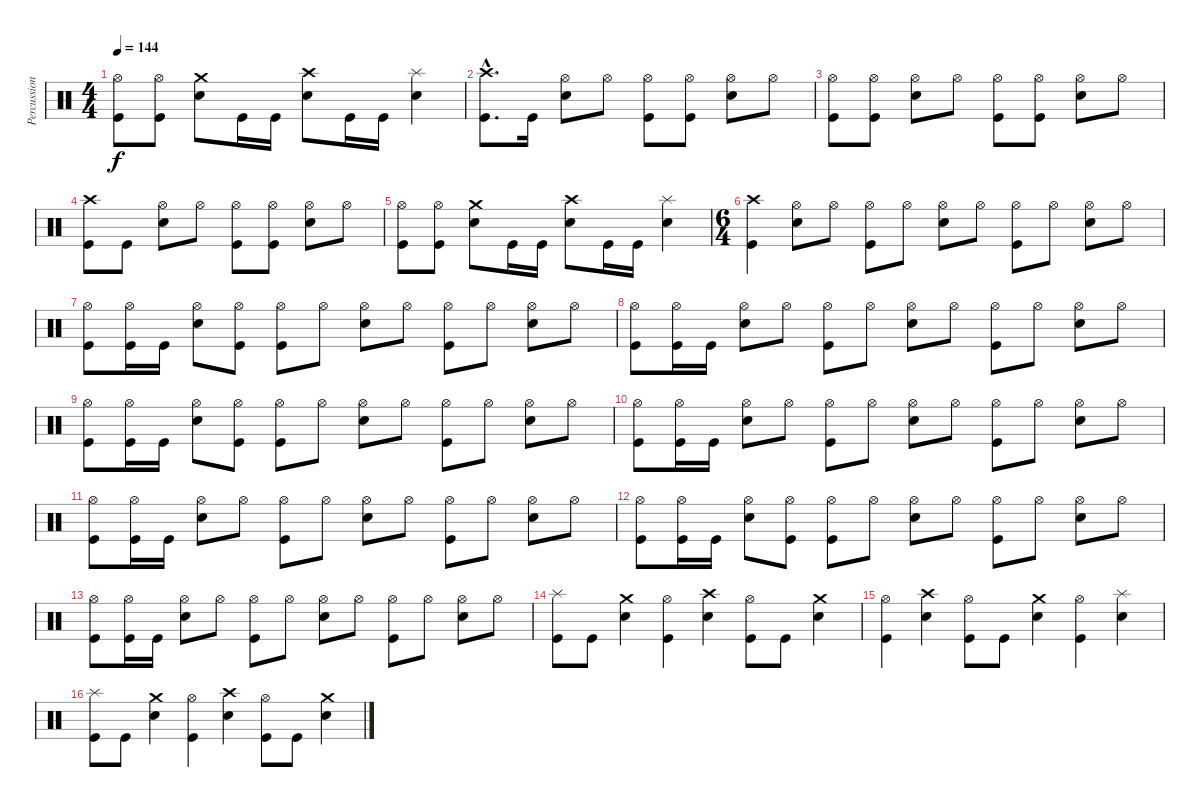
\track ("Percussions" "Percussion") {instrument percussion}
\staff {score}
\articulation defaults
\ts (4 4)
\tempo 144
\clef neutral
\ks c
("Kick (hit)" "Hi-Hat (open)").8{dy f} ("Kick (hit)" "Hi-Hat (open)").8 ("Electric Snare (hit)" "Crash medium (hit)").8 "Kick (hit)".16 "Kick (hit)".16 ("Electric Snare (hit)" "Crash high (hit)").8 "Kick (hit)".16 "Kick (hit)".16 ("Electric Snare (hit)" "Splash (hit)").4 |
("Kick (hit)"{hac} "Crash high (hit)"{hac}).8{d} "Kick (hit)".16 ("Electric Snare (hit)" "Hi-Hat (open)").8 "Hi-Hat (open)".8 ("Kick (hit)" "Hi-Hat (open)").8 ("Kick (hit)" "Hi-Hat (open)").8 ("Electric Snare (hit)" "Hi-Hat (open)").8 "Hi-Hat (open)".8 |
("Kick (hit)" "Hi-Hat (open)").8 ("Kick (hit)" "Hi-Hat (open)").8 ("Electric Snare (hit)" "Hi-Hat (open)").8 "Hi-Hat (open)".8 ("Kick (hit)" "Hi-Hat (open)").8 ("Kick (hit)" "Hi-Hat (open)").8 ("Electric Snare (hit)" "Hi-Hat (open)").8 "Hi-Hat (open)".8 |
("Kick (hit)" "Crash high (hit)").8 "Kick (hit)".8 ("Electric Snare (hit)" "Hi-Hat (open)").8 "Hi-Hat (open)".8 ("Kick (hit)" "Hi-Hat (open)").8 ("Kick (hit)" "Hi-Hat (open)").8 ("Electric Snare (hit)" "Hi-Hat (open)").8 "Hi-Hat (open)".8 |
("Kick (hit)" "Hi-Hat (open)").8 ("Kick (hit)" "Hi-Hat (open)").8 ("Electric Snare (hit)" "Crash medium (hit)").8 "Kick (hit)".16 "Kick (hit)".16 ("Electric Snare (hit)" "Crash high (hit)").8 "Kick (hit)".16 "Kick (hit)".16 ("Electric Snare (hit)" "Splash (hit)").4 |
\ts (6 4)
("Kick (hit)" "Crash high (hit)").4 ("Electric Snare (hit)" "Hi-Hat (open)").8 "Hi-Hat (open)".8 ("Kick (hit)" "Hi-Hat (open)").8 "Hi-Hat (open)".8 ("Electric Snare (hit)" "Hi-Hat (open)").8 "Hi-Hat (open)".8 ("Kick (hit)" "Hi-Hat (open)").8 "Hi-Hat (open)".8 ("Electric Snare (hit)" "Hi-Hat (open)").8 "Hi-Hat (open)".8 |
("Kick (hit)" "Hi-Hat (open)").8 ("Kick (hit)" "Hi-Hat (open)").16 "Kick (hit)".16 ("Electric Snare (hit)" "Hi-Hat (open)").8 ("Kick (hit)" "Hi-Hat (open)").8 ("Kick (hit)" "Hi-Hat (open)").8 "Hi-Hat (open)".8 ("Electric Snare (hit)" "Hi-Hat (open)").8 "Hi-Hat (open)".8 ("Kick (hit)" "Hi-Hat (open)").8 "Hi-Hat (open)".8 ("Electric Snare (hit)" "Hi-Hat (open)").8 "Hi-Hat (open)".8 |
("Kick (hit)" "Hi-Hat (open)").8 ("Kick (hit)" "Hi-Hat (open)").16 "Kick (hit)".16 ("Electric Snare (hit)" "Hi-Hat (open)").8 "Hi-Hat (open)".8 ("Kick (hit)" "Hi-Hat (open)").8 "Hi-Hat (open)".8 ("Electric Snare (hit)" "Hi-Hat (open)").8 "Hi-Hat (open)".8 ("Kick (hit)" "Hi-Hat (open)").8 "Hi-Hat (open)".8 ("Electric Snare (hit)" "Hi-Hat (open)").8 "Hi-Hat (open)".8 |
("Kick (hit)" "Hi-Hat (open)").8 ("Kick (hit)" "Hi-Hat (open)").16 "Kick (hit)".16 ("Electric Snare (hit)" "Hi-Hat (open)").8 ("Kick (hit)" "Hi-Hat (open)").8 ("Kick (hit)" "Hi-Hat (open)").8 "Hi-Hat (open)".8 ("Electric Snare (hit)" "Hi-Hat (open)").8 "Hi-Hat (open)".8 ("Kick (hit)" "Hi-Hat (open)").8 "Hi-Hat (open)".8 ("Electric Snare (hit)" "Hi-Hat (open)").8 "Hi-Hat (open)".8 |
("Kick (hit)" "Hi-Hat (open)").8 ("Kick (hit)" "Hi-Hat (open)").16 "Kick (hit)".16 ("Electric Snare (hit)" "Hi-Hat (open)").8 "Hi-Hat (open)".8 ("Kick (hit)" "Hi-Hat (open)").8 "Hi-Hat (open)".8 ("Electric Snare (hit)" "Hi-Hat (open)").8 "Hi-Hat (open)".8 ("Kick (hit)" "Hi-Hat (open)").8 "Hi-Hat (open)".8 ("Electric Snare (hit)" "Hi-Hat (open)").8 "Hi-Hat (open)".8 |
("Kick (hit)" "Hi-Hat (open)").8 ("Kick (hit)" "Hi-Hat (open)").16 "Kick (hit)".16 ("Electric Snare (hit)" "Hi-Hat (open)").8 "Hi-Hat (open)".8 ("Kick (hit)" "Hi-Hat (open)").8 "Hi-Hat (open)".8 ("Electric Snare (hit)" "Hi-Hat (open)").8 "Hi-Hat (open)".8 ("Kick (hit)" "Hi-Hat (open)").8 "Hi-Hat (open)".8 ("Electric Snare (hit)" "Hi-Hat (open)").8 "Hi-Hat (open)".8 |
("Kick (hit)" "Hi-Hat (open)").8 ("Kick (hit)" "Hi-Hat (open)").16 "Kick (hit)".16 ("Electric Snare (hit)" "Hi-Hat (open)").8 ("Kick (hit)" "Hi-Hat (open)").8 ("Kick (hit)" "Hi-Hat (open)").8 "Hi-Hat (open)".8 ("Electric Snare (hit)" "Hi-Hat (open)").8 "Hi-Hat (open)".8 ("Kick (hit)" "Hi-Hat (open)").8 "Hi-Hat (open)".8 ("Electric Snare (hit)" "Hi-Hat (open)").8 "Hi-Hat (open)".8 |
("Kick (hit)" "Hi-Hat (open)").8 ("Kick (hit)" "Hi-Hat (open)").16 "Kick (hit)".16 ("Electric Snare (hit)" "Hi-Hat (open)").8 "Hi-Hat (open)".8 ("Kick (hit)" "Hi-Hat (open)").8 "Hi-Hat (open)".8 ("Electric Snare (hit)" "Hi-Hat (open)").8 "Hi-Hat (open)".8 ("Kick (hit)" "Hi-Hat (open)").8 "Hi-Hat (open)".8 ("Electric Snare (hit)" "Hi-Hat (open)").8 "Hi-Hat (open)".8 |
("Kick (hit)" "Splash (hit)").8 "Kick (hit)".8 ("Electric Snare (hit)" "Crash medium (hit)").4 ("Kick (hit)" "Hi-Hat (open)").4 ("Electric Snare (hit)" "Crash high (hit)").4 ("Kick (hit)" "Hi-Hat (open)").8 "Kick (hit)".8 ("Electric Snare (hit)" "Crash medium (hit)").4 |
("Kick (hit)" "Hi-Hat (open)").4 ("Electric Snare (hit)" "Crash high (hit)").4 ("Kick (hit)" "Hi-Hat (open)").8 "Kick (hit)".8 ("Electric Snare (hit)" "Crash medium (hit)").4 ("Kick (hit)" "Hi-Hat (open)").4 ("Electric Snare (hit)" "Splash (hit)").4 |
("Kick (hit)" "Splash (hit)").8 "Kick (hit)".8 ("Electric Snare (hit)" "Crash medium (hit)").4 ("Kick (hit)" "Hi-Hat (open)").4 ("Electric Snare (hit)" "Crash high (hit)").4 ("Kick (hit)" "Hi-Hat (open)").8 "Kick (hit)".8 ("Electric Snare (hit)" "Crash medium (hit)").4
